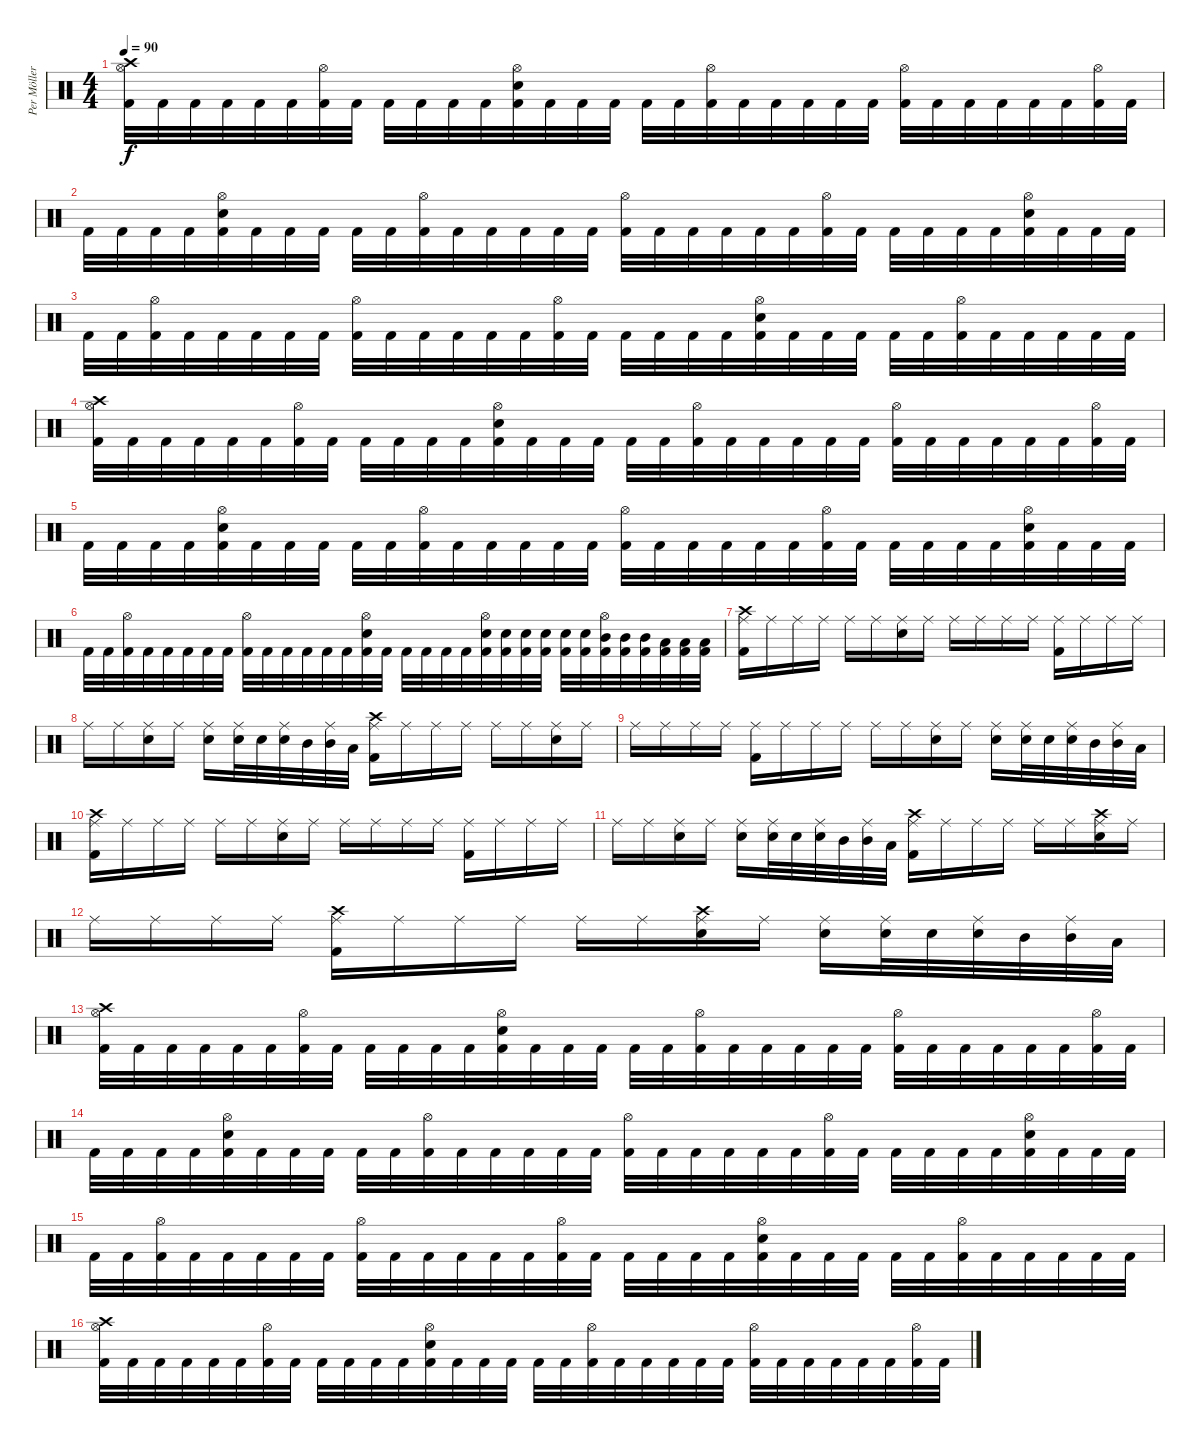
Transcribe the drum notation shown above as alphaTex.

\track ("Per Möller-Jensen" "Per Möller") {instrument percussion}
\staff {score}
\articulation defaults
\ts (4 4)
\tempo 90
\clef neutral
\ks c
("Crash high (hit)" "Hi-Hat (open)" "Kick (hit) 2").32{dy f} "Kick (hit) 2".32 "Kick (hit) 2".32 "Kick (hit) 2".32 "Kick (hit) 2".32 "Kick (hit) 2".32 ("Hi-Hat (open)" "Kick (hit) 2").32 "Kick (hit) 2".32 "Kick (hit) 2".32 "Kick (hit) 2".32 "Kick (hit) 2".32 "Kick (hit) 2".32 ("Snare (hit) 2" "Hi-Hat (open)" "Kick (hit) 2").32 "Kick (hit) 2".32 "Kick (hit) 2".32 "Kick (hit) 2".32 "Kick (hit) 2".32 "Kick (hit) 2".32 ("Hi-Hat (open)" "Kick (hit) 2").32 "Kick (hit) 2".32 "Kick (hit) 2".32 "Kick (hit) 2".32 "Kick (hit) 2".32 "Kick (hit) 2".32 ("Hi-Hat (open)" "Kick (hit) 2").32 "Kick (hit) 2".32 "Kick (hit) 2".32 "Kick (hit) 2".32 "Kick (hit) 2".32 "Kick (hit) 2".32 ("Hi-Hat (open)" "Kick (hit) 2").32 "Kick (hit) 2".32 |
"Kick (hit) 2".32 "Kick (hit) 2".32 "Kick (hit) 2".32 "Kick (hit) 2".32 ("Snare (hit) 2" "Hi-Hat (open)" "Kick (hit) 2").32 "Kick (hit) 2".32 "Kick (hit) 2".32 "Kick (hit) 2".32 "Kick (hit) 2".32 "Kick (hit) 2".32 ("Hi-Hat (open)" "Kick (hit) 2").32 "Kick (hit) 2".32 "Kick (hit) 2".32 "Kick (hit) 2".32 "Kick (hit) 2".32 "Kick (hit) 2".32 ("Hi-Hat (open)" "Kick (hit) 2").32 "Kick (hit) 2".32 "Kick (hit) 2".32 "Kick (hit) 2".32 "Kick (hit) 2".32 "Kick (hit) 2".32 ("Hi-Hat (open)" "Kick (hit) 2").32 "Kick (hit) 2".32 "Kick (hit) 2".32 "Kick (hit) 2".32 "Kick (hit) 2".32 "Kick (hit) 2".32 ("Snare (hit) 2" "Hi-Hat (open)" "Kick (hit) 2").32 "Kick (hit) 2".32 "Kick (hit) 2".32 "Kick (hit) 2".32 |
"Kick (hit) 2".32 "Kick (hit) 2".32 ("Hi-Hat (open)" "Kick (hit) 2").32 "Kick (hit) 2".32 "Kick (hit) 2".32 "Kick (hit) 2".32 "Kick (hit) 2".32 "Kick (hit) 2".32 ("Hi-Hat (open)" "Kick (hit) 2").32 "Kick (hit) 2".32 "Kick (hit) 2".32 "Kick (hit) 2".32 "Kick (hit) 2".32 "Kick (hit) 2".32 ("Hi-Hat (open)" "Kick (hit) 2").32 "Kick (hit) 2".32 "Kick (hit) 2".32 "Kick (hit) 2".32 "Kick (hit) 2".32 "Kick (hit) 2".32 ("Snare (hit) 2" "Hi-Hat (open)" "Kick (hit) 2").32 "Kick (hit) 2".32 "Kick (hit) 2".32 "Kick (hit) 2".32 "Kick (hit) 2".32 "Kick (hit) 2".32 ("Hi-Hat (open)" "Kick (hit) 2").32 "Kick (hit) 2".32 "Kick (hit) 2".32 "Kick (hit) 2".32 "Kick (hit) 2".32 "Kick (hit) 2".32 |
("Crash high (hit)" "Hi-Hat (open)" "Kick (hit) 2").32 "Kick (hit) 2".32 "Kick (hit) 2".32 "Kick (hit) 2".32 "Kick (hit) 2".32 "Kick (hit) 2".32 ("Hi-Hat (open)" "Kick (hit) 2").32 "Kick (hit) 2".32 "Kick (hit) 2".32 "Kick (hit) 2".32 "Kick (hit) 2".32 "Kick (hit) 2".32 ("Snare (hit) 2" "Hi-Hat (open)" "Kick (hit) 2").32 "Kick (hit) 2".32 "Kick (hit) 2".32 "Kick (hit) 2".32 "Kick (hit) 2".32 "Kick (hit) 2".32 ("Hi-Hat (open)" "Kick (hit) 2").32 "Kick (hit) 2".32 "Kick (hit) 2".32 "Kick (hit) 2".32 "Kick (hit) 2".32 "Kick (hit) 2".32 ("Hi-Hat (open)" "Kick (hit) 2").32 "Kick (hit) 2".32 "Kick (hit) 2".32 "Kick (hit) 2".32 "Kick (hit) 2".32 "Kick (hit) 2".32 ("Hi-Hat (open)" "Kick (hit) 2").32 "Kick (hit) 2".32 |
"Kick (hit) 2".32 "Kick (hit) 2".32 "Kick (hit) 2".32 "Kick (hit) 2".32 ("Snare (hit) 2" "Hi-Hat (open)" "Kick (hit) 2").32 "Kick (hit) 2".32 "Kick (hit) 2".32 "Kick (hit) 2".32 "Kick (hit) 2".32 "Kick (hit) 2".32 ("Hi-Hat (open)" "Kick (hit) 2").32 "Kick (hit) 2".32 "Kick (hit) 2".32 "Kick (hit) 2".32 "Kick (hit) 2".32 "Kick (hit) 2".32 ("Hi-Hat (open)" "Kick (hit) 2").32 "Kick (hit) 2".32 "Kick (hit) 2".32 "Kick (hit) 2".32 "Kick (hit) 2".32 "Kick (hit) 2".32 ("Hi-Hat (open)" "Kick (hit) 2").32 "Kick (hit) 2".32 "Kick (hit) 2".32 "Kick (hit) 2".32 "Kick (hit) 2".32 "Kick (hit) 2".32 ("Snare (hit) 2" "Hi-Hat (open)" "Kick (hit) 2").32 "Kick (hit) 2".32 "Kick (hit) 2".32 "Kick (hit) 2".32 |
"Kick (hit) 2".32 "Kick (hit) 2".32 ("Hi-Hat (open)" "Kick (hit) 2").32 "Kick (hit) 2".32 "Kick (hit) 2".32 "Kick (hit) 2".32 "Kick (hit) 2".32 "Kick (hit) 2".32 ("Hi-Hat (open)" "Kick (hit) 2").32 "Kick (hit) 2".32 "Kick (hit) 2".32 "Kick (hit) 2".32 "Kick (hit) 2".32 "Kick (hit) 2".32 ("Snare (hit) 2" "Hi-Hat (open)" "Kick (hit) 2").32 "Kick (hit) 2".32 "Kick (hit) 2".32 "Kick (hit) 2".32 "Kick (hit) 2".32 "Kick (hit) 2".32 ("Snare (hit) 2" "Hi-Hat (open)" "Kick (hit) 2").32 ("Snare (hit) 2" "Kick (hit) 2").32 ("Snare (hit) 2" "Kick (hit) 2").32 ("Snare (hit) 2" "Kick (hit) 2").32 ("Snare (hit) 2" "Kick (hit) 2").32 ("Snare (hit) 2" "Kick (hit) 2").32 ("Mid Tom (hit)" "Hi-Hat (open)" "Kick (hit) 2").32 ("Mid Tom (hit)" "Kick (hit) 2").32 ("Mid Tom (hit)" "Kick (hit) 2").32 ("Low Tom (hit)" "Kick (hit) 2").32 ("Low Tom (hit)" "Kick (hit) 2").32 ("Low Tom (hit)" "Kick (hit) 2").32 |
("Crash high (hit)" "Ride (middle)" "Kick (hit) 2").16 "Ride (middle)".16 "Ride (middle)".16 "Ride (middle)".16 "Ride (middle)".16 "Ride (middle)".16 ("Snare (hit) 2" "Ride (middle)").16 "Ride (middle)".16 "Ride (middle)".16 "Ride (middle)".16 "Ride (middle)".16 "Ride (middle)".16 ("Ride (middle)" "Kick (hit) 2").16 "Ride (middle)".16 "Ride (middle)".16 "Ride (middle)".16 |
"Ride (middle)".16 "Ride (middle)".16 ("Snare (hit) 2" "Ride (middle)").16 "Ride (middle)".16 ("Snare (hit) 2" "Ride (middle)").16 ("Snare (hit) 2" "Ride (middle)").32 "Snare (hit) 2".32 ("Snare (hit) 2" "Ride (middle)").32 "Mid Tom (hit)".32 ("Mid Tom (hit)" "Ride (middle)").32 "Low Tom (hit)".32 ("Crash high (hit)" "Ride (middle)" "Kick (hit) 2").16 "Ride (middle)".16 "Ride (middle)".16 "Ride (middle)".16 "Ride (middle)".16 "Ride (middle)".16 ("Snare (hit) 2" "Ride (middle)").16 "Ride (middle)".16 |
"Ride (middle)".16 "Ride (middle)".16 "Ride (middle)".16 "Ride (middle)".16 ("Ride (middle)" "Kick (hit) 2").16 "Ride (middle)".16 "Ride (middle)".16 "Ride (middle)".16 "Ride (middle)".16 "Ride (middle)".16 ("Snare (hit) 2" "Ride (middle)").16 "Ride (middle)".16 ("Snare (hit) 2" "Ride (middle)").16 ("Snare (hit) 2" "Ride (middle)").32 "Snare (hit) 2".32 ("Snare (hit) 2" "Ride (middle)").32 "Mid Tom (hit)".32 ("Mid Tom (hit)" "Ride (middle)").32 "Low Tom (hit)".32 |
("Crash high (hit)" "Ride (middle)" "Kick (hit) 2").16 "Ride (middle)".16 "Ride (middle)".16 "Ride (middle)".16 "Ride (middle)".16 "Ride (middle)".16 ("Snare (hit) 2" "Ride (middle)").16 "Ride (middle)".16 "Ride (middle)".16 "Ride (middle)".16 "Ride (middle)".16 "Ride (middle)".16 ("Ride (middle)" "Kick (hit) 2").16 "Ride (middle)".16 "Ride (middle)".16 "Ride (middle)".16 |
"Ride (middle)".16 "Ride (middle)".16 ("Snare (hit) 2" "Ride (middle)").16 "Ride (middle)".16 ("Snare (hit) 2" "Ride (middle)").16 ("Snare (hit) 2" "Ride (middle)").32 "Snare (hit) 2".32 ("Snare (hit) 2" "Ride (middle)").32 "Mid Tom (hit)".32 ("Mid Tom (hit)" "Ride (middle)").32 "Low Tom (hit)".32 ("Crash high (hit)" "Ride (middle)" "Kick (hit) 2").16 "Ride (middle)".16 "Ride (middle)".16 "Ride (middle)".16 "Ride (middle)".16 "Ride (middle)".16 ("Crash high (hit)" "Snare (hit) 2" "Ride (middle)").16 "Ride (middle)".16 |
"Ride (middle)".16 "Ride (middle)".16 "Ride (middle)".16 "Ride (middle)".16 ("Crash high (hit)" "Ride (middle)" "Kick (hit) 2").16 "Ride (middle)".16 "Ride (middle)".16 "Ride (middle)".16 "Ride (middle)".16 "Ride (middle)".16 ("Crash high (hit)" "Snare (hit) 2" "Ride (middle)").16 "Ride (middle)".16 ("Snare (hit) 2" "Ride (middle)").16 ("Snare (hit) 2" "Ride (middle)").32 "Snare (hit) 2".32 ("Snare (hit) 2" "Ride (middle)").32 "Mid Tom (hit)".32 ("Mid Tom (hit)" "Ride (middle)").32 "Low Tom (hit)".32 |
("Crash high (hit)" "Hi-Hat (open)" "Kick (hit) 2").32 "Kick (hit) 2".32 "Kick (hit) 2".32 "Kick (hit) 2".32 "Kick (hit) 2".32 "Kick (hit) 2".32 ("Hi-Hat (open)" "Kick (hit) 2").32 "Kick (hit) 2".32 "Kick (hit) 2".32 "Kick (hit) 2".32 "Kick (hit) 2".32 "Kick (hit) 2".32 ("Snare (hit) 2" "Hi-Hat (open)" "Kick (hit) 2").32 "Kick (hit) 2".32 "Kick (hit) 2".32 "Kick (hit) 2".32 "Kick (hit) 2".32 "Kick (hit) 2".32 ("Hi-Hat (open)" "Kick (hit) 2").32 "Kick (hit) 2".32 "Kick (hit) 2".32 "Kick (hit) 2".32 "Kick (hit) 2".32 "Kick (hit) 2".32 ("Hi-Hat (open)" "Kick (hit) 2").32 "Kick (hit) 2".32 "Kick (hit) 2".32 "Kick (hit) 2".32 "Kick (hit) 2".32 "Kick (hit) 2".32 ("Hi-Hat (open)" "Kick (hit) 2").32 "Kick (hit) 2".32 |
"Kick (hit) 2".32 "Kick (hit) 2".32 "Kick (hit) 2".32 "Kick (hit) 2".32 ("Snare (hit) 2" "Hi-Hat (open)" "Kick (hit) 2").32 "Kick (hit) 2".32 "Kick (hit) 2".32 "Kick (hit) 2".32 "Kick (hit) 2".32 "Kick (hit) 2".32 ("Hi-Hat (open)" "Kick (hit) 2").32 "Kick (hit) 2".32 "Kick (hit) 2".32 "Kick (hit) 2".32 "Kick (hit) 2".32 "Kick (hit) 2".32 ("Hi-Hat (open)" "Kick (hit) 2").32 "Kick (hit) 2".32 "Kick (hit) 2".32 "Kick (hit) 2".32 "Kick (hit) 2".32 "Kick (hit) 2".32 ("Hi-Hat (open)" "Kick (hit) 2").32 "Kick (hit) 2".32 "Kick (hit) 2".32 "Kick (hit) 2".32 "Kick (hit) 2".32 "Kick (hit) 2".32 ("Snare (hit) 2" "Hi-Hat (open)" "Kick (hit) 2").32 "Kick (hit) 2".32 "Kick (hit) 2".32 "Kick (hit) 2".32 |
"Kick (hit) 2".32 "Kick (hit) 2".32 ("Hi-Hat (open)" "Kick (hit) 2").32 "Kick (hit) 2".32 "Kick (hit) 2".32 "Kick (hit) 2".32 "Kick (hit) 2".32 "Kick (hit) 2".32 ("Hi-Hat (open)" "Kick (hit) 2").32 "Kick (hit) 2".32 "Kick (hit) 2".32 "Kick (hit) 2".32 "Kick (hit) 2".32 "Kick (hit) 2".32 ("Hi-Hat (open)" "Kick (hit) 2").32 "Kick (hit) 2".32 "Kick (hit) 2".32 "Kick (hit) 2".32 "Kick (hit) 2".32 "Kick (hit) 2".32 ("Snare (hit) 2" "Hi-Hat (open)" "Kick (hit) 2").32 "Kick (hit) 2".32 "Kick (hit) 2".32 "Kick (hit) 2".32 "Kick (hit) 2".32 "Kick (hit) 2".32 ("Hi-Hat (open)" "Kick (hit) 2").32 "Kick (hit) 2".32 "Kick (hit) 2".32 "Kick (hit) 2".32 "Kick (hit) 2".32 "Kick (hit) 2".32 |
("Crash high (hit)" "Hi-Hat (open)" "Kick (hit) 2").32 "Kick (hit) 2".32 "Kick (hit) 2".32 "Kick (hit) 2".32 "Kick (hit) 2".32 "Kick (hit) 2".32 ("Hi-Hat (open)" "Kick (hit) 2").32 "Kick (hit) 2".32 "Kick (hit) 2".32 "Kick (hit) 2".32 "Kick (hit) 2".32 "Kick (hit) 2".32 ("Snare (hit) 2" "Hi-Hat (open)" "Kick (hit) 2").32 "Kick (hit) 2".32 "Kick (hit) 2".32 "Kick (hit) 2".32 "Kick (hit) 2".32 "Kick (hit) 2".32 ("Hi-Hat (open)" "Kick (hit) 2").32 "Kick (hit) 2".32 "Kick (hit) 2".32 "Kick (hit) 2".32 "Kick (hit) 2".32 "Kick (hit) 2".32 ("Hi-Hat (open)" "Kick (hit) 2").32 "Kick (hit) 2".32 "Kick (hit) 2".32 "Kick (hit) 2".32 "Kick (hit) 2".32 "Kick (hit) 2".32 ("Hi-Hat (open)" "Kick (hit) 2").32 "Kick (hit) 2".32
